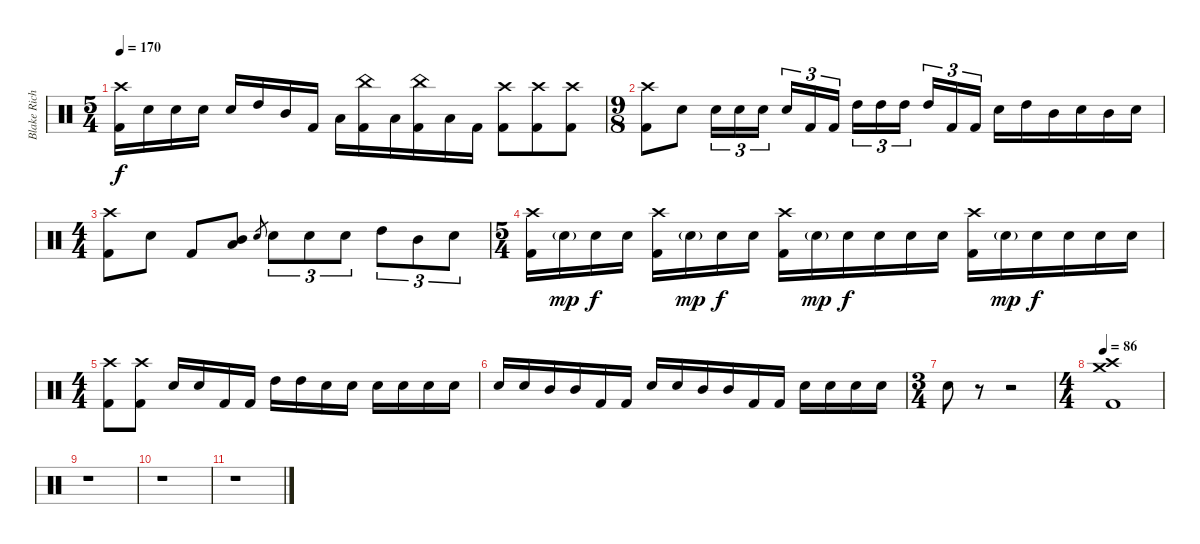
\track ("Blake Richardson" "Blake Rich") {instrument percussion}
\staff {score}
\articulation defaults
\ts (5 4)
\tempo 170
\clef neutral
\ks c
("Crash high (hit)" "Kick (hit) 2").16{dy f} "Electric Snare (hit)".16 "Electric Snare (hit)".16 "Electric Snare (hit)".16 "Electric Snare (hit)".16 "High Tom (hit)".16 "Mid Tom (hit)".16 "Kick (hit) 2".16 "Low Tom (hit)".16 ("China (hit)" "Kick (hit) 2").16 "Low Tom (hit)".16{beam merge} ("China (hit)" "Kick (hit) 2").16{beam merge} "Low Tom (hit)".16 "Kick (hit) 2".16{beam split} ("Crash high (hit)" "Kick (hit) 2").8{beam merge} ("Crash high (hit)" "Kick (hit) 2").8 ("Crash high (hit)" "Kick (hit) 2").8 |
\ts (9 8)
("Crash high (hit)" "Kick (hit) 2").8 "Electric Snare (hit)".8 "Electric Snare (hit)".16{tu (3 2)} "Electric Snare (hit)".16{tu (3 2)} "Electric Snare (hit)".16{tu (3 2) beam splitsecondary} "Electric Snare (hit)".16{tu (3 2)} "Kick (hit) 2".16{tu (3 2)} "Kick (hit) 2".16{tu (3 2) beam split} "High Tom (hit)".16{tu (3 2)} "High Tom (hit)".16{tu (3 2)} "High Tom (hit)".16{tu (3 2) beam splitsecondary} "High Tom (hit)".16{tu (3 2)} "Kick (hit) 2".16{tu (3 2)} "Kick (hit) 2".16{tu (3 2)} "Electric Snare (hit)".16 "High Tom (hit)".16 "Mid Tom (hit)".16 "Electric Snare (hit)".16 "Mid Tom (hit)".16 "Electric Snare (hit)".16 |
\ts (4 4)
("Crash high (hit)" "Kick (hit) 2").8 "Electric Snare (hit)".8 "Kick (hit) 2".8 ("Mid Tom (hit)" "Low Tom (hit)").8 "Electric Snare (hit)".8{gr} "Electric Snare (hit)".8{tu (3 2)} "Electric Snare (hit)".8{tu (3 2)} "Electric Snare (hit)".8{tu (3 2)} "High Tom (hit)".8{tu (3 2)} "Mid Tom (hit)".8{tu (3 2)} "Electric Snare (hit)".8{tu (3 2)} |
\ts (5 4)
("Crash high (hit)" "Kick (hit) 2").16{beam merge} "Electric Snare (hit)"{g}.16{dy mp beam merge} "Electric Snare (hit)".16{dy f beam merge} "Electric Snare (hit)".16 ("Crash high (hit)" "Kick (hit) 2").16 "Electric Snare (hit)"{g}.16{dy mp beam merge} "Electric Snare (hit)".16{dy f} "Electric Snare (hit)".16 ("Crash high (hit)" "Kick (hit) 2").16 "Electric Snare (hit)"{g}.16{dy mp beam merge} "Electric Snare (hit)".16{dy f} "Electric Snare (hit)".16{beam merge} "Electric Snare (hit)".16 "Electric Snare (hit)".16{beam split} ("Crash high (hit)" "Kick (hit) 2").16 "Electric Snare (hit)"{g}.16{dy mp beam merge} "Electric Snare (hit)".16{dy f} "Electric Snare (hit)".16{beam merge} "Electric Snare (hit)".16 "Electric Snare (hit)".16 |
\ts (4 4)
("Crash high (hit)" "Kick (hit) 2").8 ("Crash high (hit)" "Kick (hit) 2").8 "Electric Snare (hit)".16 "Electric Snare (hit)".16{beam merge} "Kick (hit) 2".16 "Kick (hit) 2".16 "High Tom (hit)".16 "High Tom (hit)".16 "Electric Snare (hit)".16 "Electric Snare (hit)".16 "Electric Snare (hit)".16 "Electric Snare (hit)".16 "Electric Snare (hit)".16 "Electric Snare (hit)".16 |
"Electric Snare (hit)".16 "Electric Snare (hit)".16 "Mid Tom (hit)".16 "Mid Tom (hit)".16{beam merge} "Kick (hit) 2".16 "Kick (hit) 2".16{beam split} "Electric Snare (hit)".16 "Electric Snare (hit)".16{beam merge} "Mid Tom (hit)".16 "Mid Tom (hit)".16 "Kick (hit) 2".16 "Kick (hit) 2".16{beam split} "Electric Snare (hit)".16 "Electric Snare (hit)".16 "Electric Snare (hit)".16 "Electric Snare (hit)".16 |
\ts (3 4)
"Electric Snare (hit)".8 r.8 r.2 |
\ts (4 4)
\tempo 86
("Crash high (hit)" "Crash medium (hit)" "Kick (hit) 2").1 |
r.1 |
r.1 |
r.1
